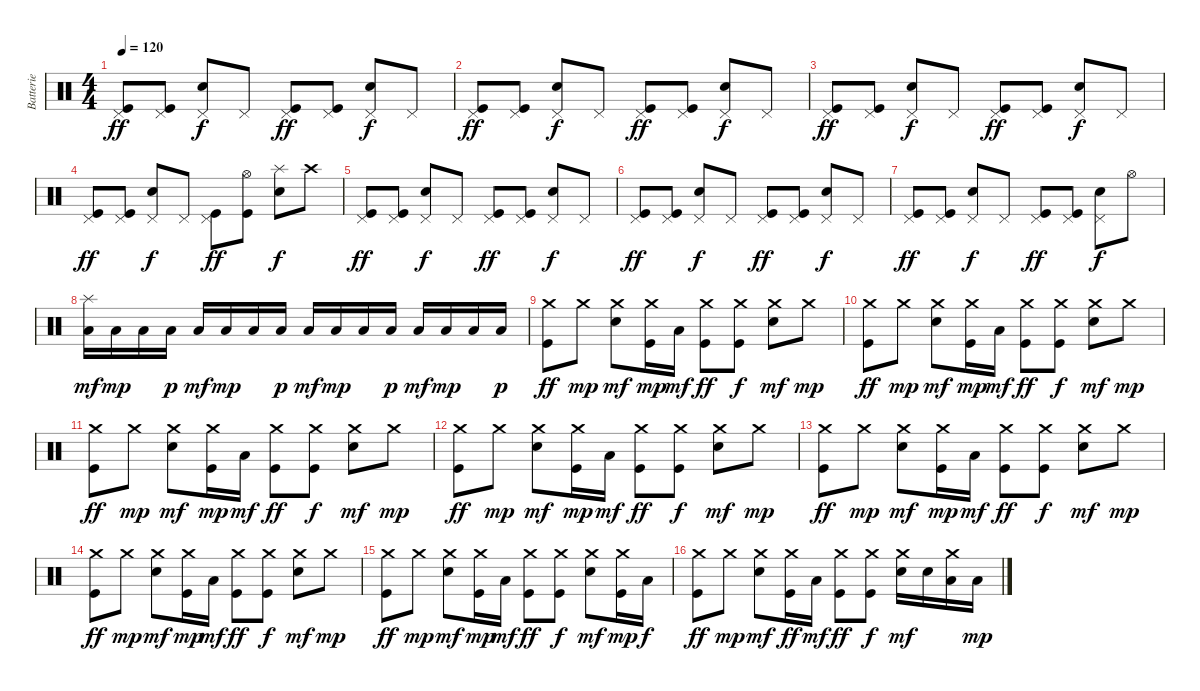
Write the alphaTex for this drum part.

\track ("Batterie" "Batterie") {instrument percussion}
\staff {score}
\articulation defaults
\ts (4 4)
\tempo 120
\clef neutral
\ks c
("Pedal Hi-Hat (hit)" "Kick (hit)").8{dy ff} ("Pedal Hi-Hat (hit)" "Kick (hit)").8 ("Pedal Hi-Hat (hit)" "Electric Snare (hit)").8{dy f} "Pedal Hi-Hat (hit)".8 ("Pedal Hi-Hat (hit)" "Kick (hit)").8{dy ff} ("Pedal Hi-Hat (hit)" "Kick (hit)").8 ("Pedal Hi-Hat (hit)" "Electric Snare (hit)").8{dy f} "Pedal Hi-Hat (hit)".8 |
("Pedal Hi-Hat (hit)" "Kick (hit)").8{dy ff} ("Pedal Hi-Hat (hit)" "Kick (hit)").8 ("Pedal Hi-Hat (hit)" "Electric Snare (hit)").8{dy f} "Pedal Hi-Hat (hit)".8 ("Pedal Hi-Hat (hit)" "Kick (hit)").8{dy ff} ("Pedal Hi-Hat (hit)" "Kick (hit)").8 ("Pedal Hi-Hat (hit)" "Electric Snare (hit)").8{dy f} "Pedal Hi-Hat (hit)".8 |
("Pedal Hi-Hat (hit)" "Kick (hit)").8{dy ff} ("Pedal Hi-Hat (hit)" "Kick (hit)").8 ("Pedal Hi-Hat (hit)" "Electric Snare (hit)").8{dy f} "Pedal Hi-Hat (hit)".8 ("Pedal Hi-Hat (hit)" "Kick (hit)").8{dy ff} ("Pedal Hi-Hat (hit)" "Kick (hit)").8 ("Pedal Hi-Hat (hit)" "Electric Snare (hit)").8{dy f} "Pedal Hi-Hat (hit)".8 |
("Pedal Hi-Hat (hit)" "Kick (hit)").8{dy ff} ("Pedal Hi-Hat (hit)" "Kick (hit)").8 ("Pedal Hi-Hat (hit)" "Electric Snare (hit)").8{dy f} "Pedal Hi-Hat (hit)".8 ("Pedal Hi-Hat (hit)" "Kick (hit)").8{dy ff} ("Hi-Hat (open)" "Kick (hit)").8 ("Splash (hit)" "Electric Snare (hit)").8{dy f} "Crash high (hit)".8 |
("Pedal Hi-Hat (hit)" "Kick (hit)").8{dy ff} ("Pedal Hi-Hat (hit)" "Kick (hit)").8 ("Pedal Hi-Hat (hit)" "Electric Snare (hit)").8{dy f} "Pedal Hi-Hat (hit)".8 ("Pedal Hi-Hat (hit)" "Kick (hit)").8{dy ff} ("Pedal Hi-Hat (hit)" "Kick (hit)").8 ("Pedal Hi-Hat (hit)" "Electric Snare (hit)").8{dy f} "Pedal Hi-Hat (hit)".8 |
("Pedal Hi-Hat (hit)" "Kick (hit)").8{dy ff} ("Pedal Hi-Hat (hit)" "Kick (hit)").8 ("Pedal Hi-Hat (hit)" "Electric Snare (hit)").8{dy f} "Pedal Hi-Hat (hit)".8 ("Pedal Hi-Hat (hit)" "Kick (hit)").8{dy ff} ("Pedal Hi-Hat (hit)" "Kick (hit)").8 ("Pedal Hi-Hat (hit)" "Electric Snare (hit)").8{dy f} "Pedal Hi-Hat (hit)".8 |
("Pedal Hi-Hat (hit)" "Kick (hit)").8{dy ff} ("Pedal Hi-Hat (hit)" "Kick (hit)").8 ("Pedal Hi-Hat (hit)" "Electric Snare (hit)").8{dy f} "Pedal Hi-Hat (hit)".8 ("Pedal Hi-Hat (hit)" "Kick (hit)").8{dy ff} ("Pedal Hi-Hat (hit)" "Kick (hit)").8 ("Pedal Hi-Hat (hit)" "Electric Snare (hit)").8{dy f} "Hi-Hat (open)".8 |
("Splash (hit)" "Low Tom (hit)").16{dy mf} "Low Tom (hit)".16{dy mp} "Low Tom (hit)".16 "Low Tom (hit)".16{dy p} "Low Tom (hit)".16{dy mf} "Low Tom (hit)".16{dy mp} "Low Tom (hit)".16 "Low Tom (hit)".16{dy p} "Low Tom (hit)".16{dy mf} "Low Tom (hit)".16{dy mp} "Low Tom (hit)".16 "Low Tom (hit)".16{dy p} "Low Tom (hit)".16{dy mf} "Low Tom (hit)".16{dy mp} "Low Tom (hit)".16 "Low Tom (hit)".16{dy p} |
("Crash medium (hit)" "Kick (hit)").8{dy ff} "Crash medium (hit)".8{dy mp} ("Crash medium (hit)" "Snare (hit) 2").8{dy mf} ("Crash medium (hit)" "Kick (hit)").16{dy mp} "Low Floor Tom (hit)".16{dy mf} ("Crash medium (hit)" "Kick (hit)").8{dy ff} ("Crash medium (hit)" "Kick (hit)").8{dy f} ("Crash medium (hit)" "Snare (hit) 2").8{dy mf} "Crash medium (hit)".8{dy mp} |
("Crash medium (hit)" "Kick (hit)").8{dy ff} "Crash medium (hit)".8{dy mp} ("Crash medium (hit)" "Snare (hit) 2").8{dy mf} ("Crash medium (hit)" "Kick (hit)").16{dy mp} "Low Floor Tom (hit)".16{dy mf} ("Crash medium (hit)" "Kick (hit)").8{dy ff} ("Crash medium (hit)" "Kick (hit)").8{dy f} ("Crash medium (hit)" "Snare (hit) 2").8{dy mf} "Crash medium (hit)".8{dy mp} |
("Crash medium (hit)" "Kick (hit)").8{dy ff} "Crash medium (hit)".8{dy mp} ("Crash medium (hit)" "Snare (hit) 2").8{dy mf} ("Crash medium (hit)" "Kick (hit)").16{dy mp} "Low Floor Tom (hit)".16{dy mf} ("Crash medium (hit)" "Kick (hit)").8{dy ff} ("Crash medium (hit)" "Kick (hit)").8{dy f} ("Crash medium (hit)" "Snare (hit) 2").8{dy mf} "Crash medium (hit)".8{dy mp} |
("Crash medium (hit)" "Kick (hit)").8{dy ff} "Crash medium (hit)".8{dy mp} ("Crash medium (hit)" "Snare (hit) 2").8{dy mf} ("Crash medium (hit)" "Kick (hit)").16{dy mp} "Low Floor Tom (hit)".16{dy mf} ("Crash medium (hit)" "Kick (hit)").8{dy ff} ("Crash medium (hit)" "Kick (hit)").8{dy f} ("Crash medium (hit)" "Snare (hit) 2").8{dy mf} "Crash medium (hit)".8{dy mp} |
("Crash medium (hit)" "Kick (hit)").8{dy ff} "Crash medium (hit)".8{dy mp} ("Crash medium (hit)" "Snare (hit) 2").8{dy mf} ("Crash medium (hit)" "Kick (hit)").16{dy mp} "Low Floor Tom (hit)".16{dy mf} ("Crash medium (hit)" "Kick (hit)").8{dy ff} ("Crash medium (hit)" "Kick (hit)").8{dy f} ("Crash medium (hit)" "Snare (hit) 2").8{dy mf} "Crash medium (hit)".8{dy mp} |
("Crash medium (hit)" "Kick (hit)").8{dy ff} "Crash medium (hit)".8{dy mp} ("Crash medium (hit)" "Snare (hit) 2").8{dy mf} ("Crash medium (hit)" "Kick (hit)").16{dy mp} "Low Floor Tom (hit)".16{dy mf} ("Crash medium (hit)" "Kick (hit)").8{dy ff} ("Crash medium (hit)" "Kick (hit)").8{dy f} ("Crash medium (hit)" "Snare (hit) 2").8{dy mf} "Crash medium (hit)".8{dy mp} |
("Crash medium (hit)" "Kick (hit)").8{dy ff} "Crash medium (hit)".8{dy mp} ("Crash medium (hit)" "Snare (hit) 2").8{dy mf} ("Crash medium (hit)" "Kick (hit)").16{dy mp} "Low Floor Tom (hit)".16{dy mf} ("Crash medium (hit)" "Kick (hit)").8{dy ff} ("Crash medium (hit)" "Kick (hit)").8{dy f} ("Crash medium (hit)" "Snare (hit) 2").8{dy mf} ("Crash medium (hit)" "Kick (hit)").16{dy mp} "Low Floor Tom (hit)".16{dy f} |
("Crash medium (hit)" "Kick (hit)").8{dy ff} "Crash medium (hit)".8{dy mp} ("Crash medium (hit)" "Snare (hit) 2").8{dy mf} ("Crash medium (hit)" "Kick (hit)").16{dy ff} "Low Floor Tom (hit)".16{dy mf} ("Crash medium (hit)" "Kick (hit)").8{dy ff} ("Crash medium (hit)" "Kick (hit)").8{dy f} ("Crash medium (hit)" "Snare (hit) 2").16{dy mf} "Snare (hit) 2".16 ("Crash medium (hit)" "Low Tom (hit)").16 "Low Tom (hit)".16{dy mp}
